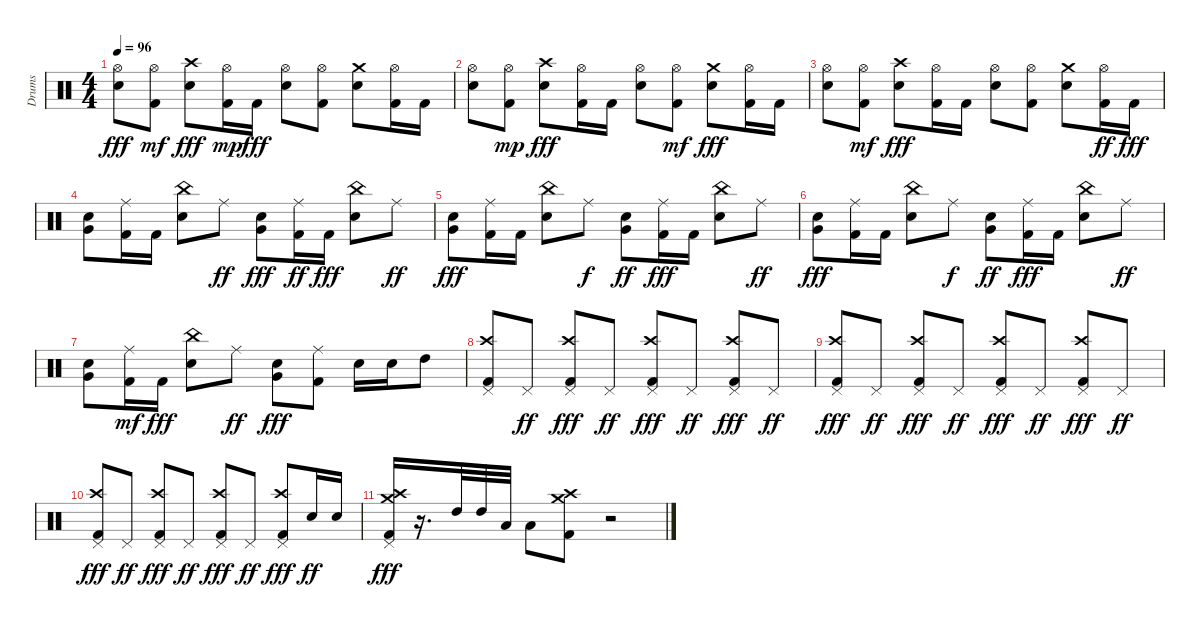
\track ("Drums" "Drums") {instrument percussion}
\staff {score}
\articulation defaults
\ts (4 4)
\tempo 96
\clef neutral
\ks c
("Hi-Hat (open)" "Snare (hit) 2").8{dy fff} ("Kick (hit) 2" "Hi-Hat (open)").8{dy mf} ("Snare (hit) 2" "Crash high (hit)").8{dy fff} ("Kick (hit) 2" "Hi-Hat (open)").16{dy mp} "Kick (hit) 2".16{dy fff} ("Snare (hit) 2" "Hi-Hat (open)").8 ("Kick (hit) 2" "Hi-Hat (open)").8 ("Crash medium (hit)" "Snare (hit) 2").8 ("Kick (hit) 2" "Hi-Hat (open)").16 "Kick (hit) 2".16 |
("Hi-Hat (open)" "Snare (hit) 2").8 ("Kick (hit) 2" "Hi-Hat (open)").8{dy mp} ("Snare (hit) 2" "Crash high (hit)").8{dy fff} ("Hi-Hat (open)" "Kick (hit) 2").16 "Kick (hit) 2".16 ("Snare (hit) 2" "Hi-Hat (open)").8 ("Kick (hit) 2" "Hi-Hat (open)").8{dy mf} ("Snare (hit) 2" "Crash medium (hit)").8{dy fff} ("Hi-Hat (open)" "Kick (hit) 2").16 "Kick (hit) 2".16 |
("Snare (hit) 2" "Hi-Hat (open)").8 ("Kick (hit) 2" "Hi-Hat (open)").8{dy mf} ("Snare (hit) 2" "Crash high (hit)").8{dy fff} ("Hi-Hat (open)" "Kick (hit) 2").16 "Kick (hit) 2".16 ("Hi-Hat (open)" "Snare (hit) 2").8 ("Kick (hit) 2" "Hi-Hat (open)").8 ("Snare (hit) 2" "Crash medium (hit)").8 ("Kick (hit) 2" "Hi-Hat (open)").16{dy ff} "Kick (hit) 2".16{dy fff} |
("Very Low Tom (hit)" "Snare (hit) 2").8 ("Ride (middle)" "Kick (hit) 2").16 "Kick (hit) 2".16 ("China (hit)" "Snare (hit) 2").8 "Ride (middle)".8{dy ff} ("Snare (hit) 2" "Very Low Tom (hit)").8{dy fff} ("Kick (hit) 2" "Ride (middle)").16{dy ff} "Kick (hit) 2".16{dy fff} ("China (hit)" "Snare (hit) 2").8 "Ride (middle)".8{dy ff} |
("Very Low Tom (hit)" "Snare (hit) 2").8{dy fff} ("Kick (hit) 2" "Ride (middle)").16 "Kick (hit) 2".16 ("China (hit)" "Snare (hit) 2").8 "Ride (middle)".8{dy f} ("Snare (hit) 2" "Very Low Tom (hit)").8{dy ff} ("Kick (hit) 2" "Ride (middle)").16{dy fff} "Kick (hit) 2".16 ("China (hit)" "Snare (hit) 2").8 "Ride (middle)".8{dy ff} |
("Snare (hit) 2" "Very Low Tom (hit)").8{dy fff} ("Kick (hit) 2" "Ride (middle)").16 "Kick (hit) 2".16 ("China (hit)" "Snare (hit) 2").8 "Ride (middle)".8{dy f} ("Snare (hit) 2" "Very Low Tom (hit)").8{dy ff} ("Kick (hit) 2" "Ride (middle)").16{dy fff} "Kick (hit) 2".16 ("China (hit)" "Snare (hit) 2").8 "Ride (middle)".8{dy ff} |
("Snare (hit) 2" "Very Low Tom (hit)").8 ("Kick (hit) 2" "Ride (middle)").16{dy mf} "Kick (hit) 2".16{dy fff} ("Snare (hit) 2" "China (hit)").8 "Ride (middle)".8{dy ff} ("Very Low Tom (hit)" "Snare (hit) 2").8{dy fff} ("Ride (middle)" "Kick (hit) 2").8 "Snare (hit) 2".16 "Snare (hit) 2".16 "High Tom (hit)".8 |
("Pedal Hi-Hat (hit)" "Kick (hit) 2" "Crash high (hit)").8 "Pedal Hi-Hat (hit)".8{dy ff} ("Pedal Hi-Hat (hit)" "Crash high (hit)" "Kick (hit) 2").8{dy fff} "Pedal Hi-Hat (hit)".8{dy ff} ("Pedal Hi-Hat (hit)" "Crash high (hit)" "Kick (hit) 2").8{dy fff} "Pedal Hi-Hat (hit)".8{dy ff} ("Pedal Hi-Hat (hit)" "Crash high (hit)" "Kick (hit) 2").8{dy fff} "Pedal Hi-Hat (hit)".8{dy ff} |
("Pedal Hi-Hat (hit)" "Kick (hit) 2" "Crash high (hit)").8{dy fff} "Pedal Hi-Hat (hit)".8{dy ff} ("Pedal Hi-Hat (hit)" "Kick (hit) 2" "Crash high (hit)").8{dy fff} "Pedal Hi-Hat (hit)".8{dy ff} ("Pedal Hi-Hat (hit)" "Crash high (hit)" "Kick (hit) 2").8{dy fff} "Pedal Hi-Hat (hit)".8{dy ff} ("Pedal Hi-Hat (hit)" "Kick (hit) 2" "Crash high (hit)").8{dy fff} "Pedal Hi-Hat (hit)".8{dy ff} |
("Pedal Hi-Hat (hit)" "Crash high (hit)" "Kick (hit) 2").8{dy fff} "Pedal Hi-Hat (hit)".8{dy ff} ("Pedal Hi-Hat (hit)" "Crash high (hit)" "Kick (hit) 2").8{dy fff} "Pedal Hi-Hat (hit)".8{dy ff} ("Pedal Hi-Hat (hit)" "Kick (hit) 2" "Crash high (hit)").8{dy fff} "Pedal Hi-Hat (hit)".8{dy ff} ("Pedal Hi-Hat (hit)" "Kick (hit) 2" "Crash high (hit)").8{dy fff} "Snare (hit) 2".16{dy ff} "Snare (hit) 2".16 |
("Pedal Hi-Hat (hit)" "Crash medium (hit)" "Crash high (hit)" "Kick (hit) 2").16{dy fff} r.16{d} "High Tom (hit)".32 "High Tom (hit)".32 "Low Tom (hit)".32 "Low Tom (hit)".8 ("Crash high (hit)" "Crash medium (hit)" "Kick (hit) 2").8 r.2
